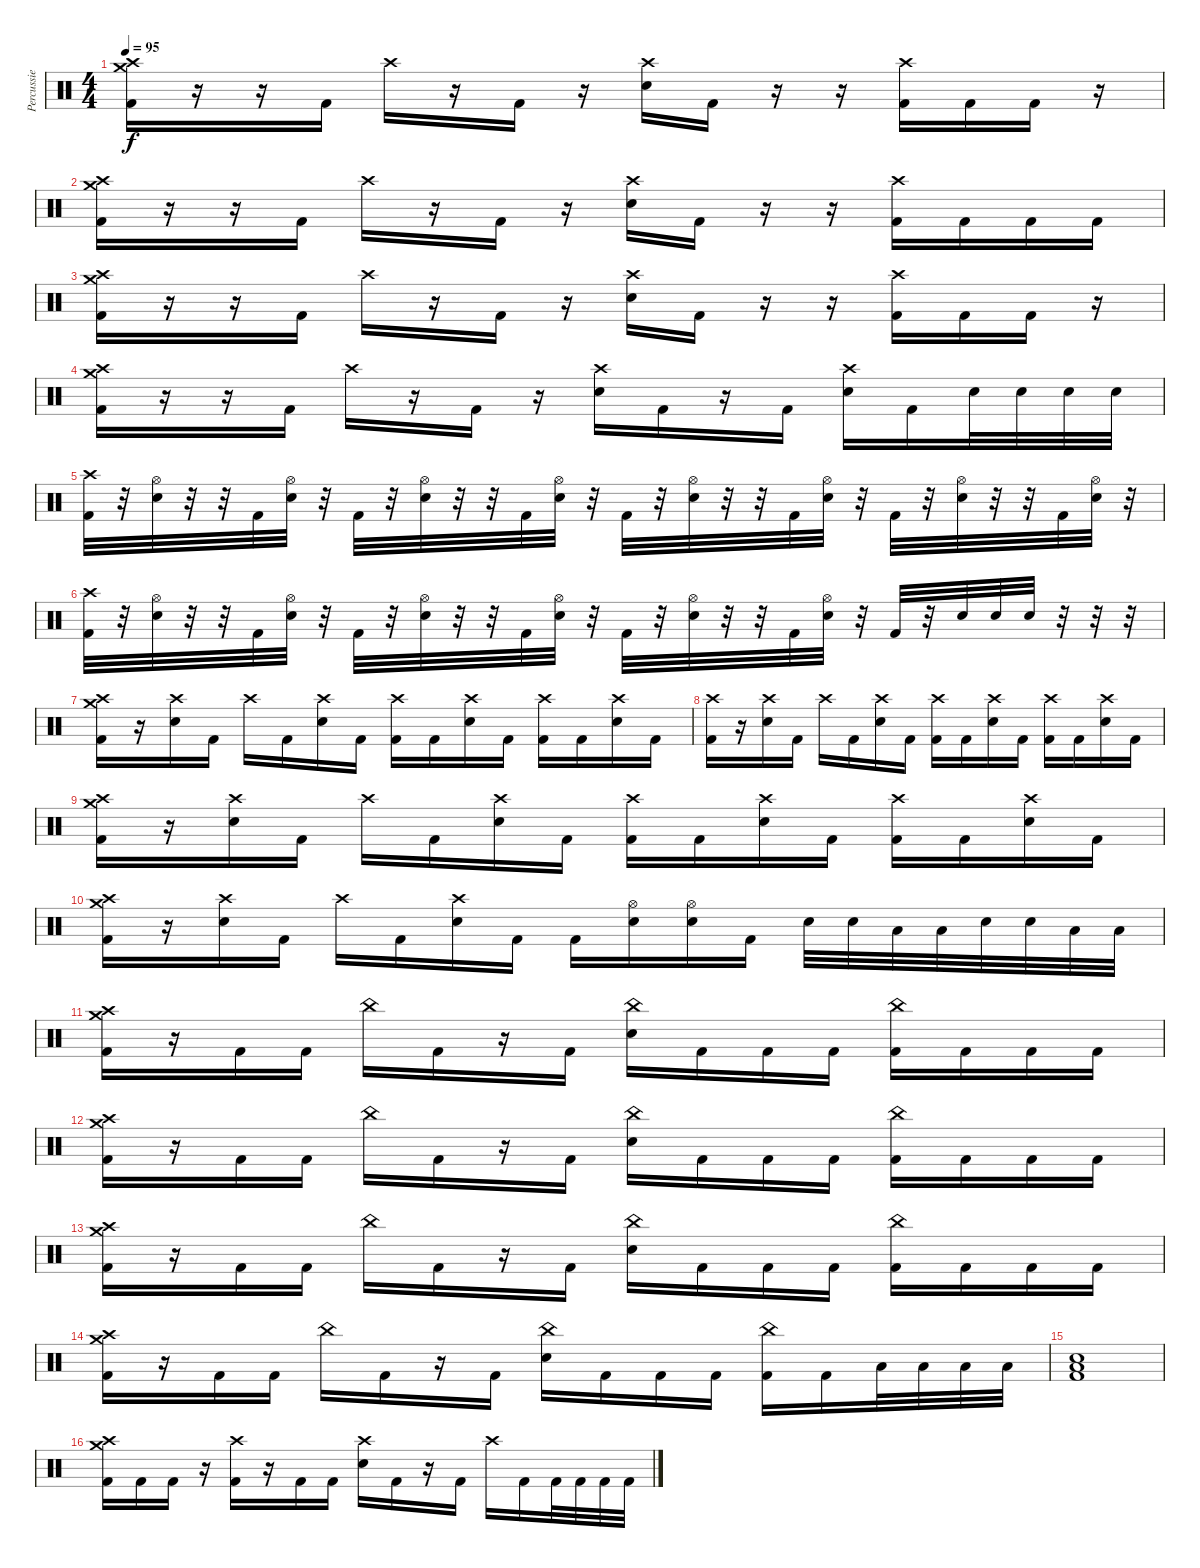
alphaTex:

\track ("Percussie" "Percussie") {instrument percussion}
\staff {score}
\articulation defaults
\ts (4 4)
\tempo 95
\clef neutral
\ks c
("Crash medium (hit)" "Crash high (hit)" "Kick (hit) 2").16{dy f} r.16 r.16 "Kick (hit) 2".16 "Crash high (hit)".16 r.16 "Kick (hit) 2".16 r.16 ("Crash high (hit)" "Electric Snare (hit)").16 "Kick (hit) 2".16 r.16 r.16 ("Crash high (hit)" "Kick (hit) 2").16 "Kick (hit) 2".16 "Kick (hit) 2".16 r.16 |
("Crash medium (hit)" "Crash high (hit)" "Kick (hit) 2").16 r.16 r.16 "Kick (hit) 2".16 "Crash high (hit)".16 r.16 "Kick (hit) 2".16 r.16 ("Crash high (hit)" "Electric Snare (hit)").16 "Kick (hit) 2".16 r.16 r.16 ("Crash high (hit)" "Kick (hit) 2").16 "Kick (hit) 2".16 "Kick (hit) 2".16 "Kick (hit) 2".16 |
("Crash medium (hit)" "Crash high (hit)" "Kick (hit) 2").16 r.16 r.16 "Kick (hit) 2".16 "Crash high (hit)".16 r.16 "Kick (hit) 2".16 r.16 ("Crash high (hit)" "Electric Snare (hit)").16 "Kick (hit) 2".16 r.16 r.16 ("Crash high (hit)" "Kick (hit) 2").16 "Kick (hit) 2".16 "Kick (hit) 2".16 r.16 |
("Crash medium (hit)" "Crash high (hit)" "Kick (hit) 2").16 r.16 r.16 "Kick (hit) 2".16 "Crash high (hit)".16 r.16 "Kick (hit) 2".16 r.16 ("Crash high (hit)" "Electric Snare (hit)").16 "Kick (hit) 2".16 r.16 "Kick (hit) 2".16 ("Crash high (hit)" "Electric Snare (hit)").16 "Kick (hit) 2".16 "Electric Snare (hit)".32 "Electric Snare (hit)".32 "Electric Snare (hit)".32 "Electric Snare (hit)".32 |
("Crash high (hit)" "Kick (hit) 2").32 r.32 ("Hi-Hat (open)" "Electric Snare (hit)").32 r.32 r.32 "Kick (hit) 2".32 ("Hi-Hat (open)" "Electric Snare (hit)").32 r.32 "Kick (hit) 2".32 r.32 ("Hi-Hat (open)" "Electric Snare (hit)").32 r.32 r.32 "Kick (hit) 2".32 ("Hi-Hat (open)" "Electric Snare (hit)").32 r.32 "Kick (hit) 2".32 r.32 ("Hi-Hat (open)" "Electric Snare (hit)").32 r.32 r.32 "Kick (hit) 2".32 ("Hi-Hat (open)" "Electric Snare (hit)").32 r.32 "Kick (hit) 2".32 r.32 ("Hi-Hat (open)" "Electric Snare (hit)").32 r.32 r.32 "Kick (hit) 2".32 ("Hi-Hat (open)" "Electric Snare (hit)").32 r.32 |
("Crash high (hit)" "Kick (hit) 2").32 r.32 ("Hi-Hat (open)" "Electric Snare (hit)").32 r.32 r.32 "Kick (hit) 2".32 ("Hi-Hat (open)" "Electric Snare (hit)").32 r.32 "Kick (hit) 2".32 r.32 ("Hi-Hat (open)" "Electric Snare (hit)").32 r.32 r.32 "Kick (hit) 2".32 ("Hi-Hat (open)" "Electric Snare (hit)").32 r.32 "Kick (hit) 2".32 r.32 ("Hi-Hat (open)" "Electric Snare (hit)").32 r.32 r.32 "Kick (hit) 2".32 ("Hi-Hat (open)" "Electric Snare (hit)").32 r.32 "Kick (hit) 2".32 r.32 "Electric Snare (hit)".32 "Electric Snare (hit)".32 "Electric Snare (hit)".32 r.32 r.32 r.32 |
("Crash medium (hit)" "Crash high (hit)" "Kick (hit) 2").16{volume 13} r.16 ("Crash high (hit)" "Electric Snare (hit)").16 "Kick (hit) 2".16 "Crash high (hit)".16 "Kick (hit) 2".16 ("Crash high (hit)" "Electric Snare (hit)").16 "Kick (hit) 2".16 ("Crash high (hit)" "Kick (hit) 2").16 "Kick (hit) 2".16 ("Crash high (hit)" "Electric Snare (hit)").16 "Kick (hit) 2".16 ("Crash high (hit)" "Kick (hit) 2").16 "Kick (hit) 2".16 ("Crash high (hit)" "Electric Snare (hit)").16 "Kick (hit) 2".16 |
("Crash high (hit)" "Kick (hit) 2").16 r.16 ("Crash high (hit)" "Electric Snare (hit)").16 "Kick (hit) 2".16 "Crash high (hit)".16 "Kick (hit) 2".16 ("Crash high (hit)" "Electric Snare (hit)").16 "Kick (hit) 2".16 ("Crash high (hit)" "Kick (hit) 2").16 "Kick (hit) 2".16 ("Crash high (hit)" "Electric Snare (hit)").16 "Kick (hit) 2".16 ("Crash high (hit)" "Kick (hit) 2").16 "Kick (hit) 2".16 ("Crash high (hit)" "Electric Snare (hit)").16 "Kick (hit) 2".16 |
("Crash medium (hit)" "Crash high (hit)" "Kick (hit) 2").16 r.16 ("Crash high (hit)" "Electric Snare (hit)").16 "Kick (hit) 2".16 "Crash high (hit)".16 "Kick (hit) 2".16 ("Crash high (hit)" "Electric Snare (hit)").16 "Kick (hit) 2".16 ("Crash high (hit)" "Kick (hit) 2").16 "Kick (hit) 2".16 ("Crash high (hit)" "Electric Snare (hit)").16 "Kick (hit) 2".16 ("Crash high (hit)" "Kick (hit) 2").16 "Kick (hit) 2".16 ("Crash high (hit)" "Electric Snare (hit)").16 "Kick (hit) 2".16 |
("Crash medium (hit)" "Crash high (hit)" "Kick (hit) 2").16 r.16 ("Crash high (hit)" "Electric Snare (hit)").16 "Kick (hit) 2".16 "Crash high (hit)".16 "Kick (hit) 2".16 ("Crash high (hit)" "Electric Snare (hit)").16 "Kick (hit) 2".16 "Kick (hit) 2".16 ("Hi-Hat (open)" "Electric Snare (hit)").16 ("Hi-Hat (open)" "Electric Snare (hit)").16 "Kick (hit) 2".16 "Electric Snare (hit)".32 "Electric Snare (hit)".32 "Low Tom (hit)".32 "Low Tom (hit)".32 "Electric Snare (hit)".32 "Electric Snare (hit)".32 "Low Floor Tom (hit)".32 "Low Floor Tom (hit)".32 |
("Crash medium (hit)" "Crash high (hit)" "Kick (hit) 2").16 r.16 "Kick (hit) 2".16 "Kick (hit) 2".16 "China (hit)".16 "Kick (hit) 2".16 r.16 "Kick (hit) 2".16 ("China (hit)" "Electric Snare (hit)").16 "Kick (hit) 2".16 "Kick (hit) 2".16 "Kick (hit) 2".16 ("China (hit)" "Kick (hit) 2").16 "Kick (hit) 2".16 "Kick (hit) 2".16 "Kick (hit) 2".16 |
("Crash medium (hit)" "Crash high (hit)" "Kick (hit) 2").16 r.16 "Kick (hit) 2".16 "Kick (hit) 2".16 "China (hit)".16 "Kick (hit) 2".16 r.16 "Kick (hit) 2".16 ("China (hit)" "Electric Snare (hit)").16 "Kick (hit) 2".16 "Kick (hit) 2".16 "Kick (hit) 2".16 ("China (hit)" "Kick (hit) 2").16 "Kick (hit) 2".16 "Kick (hit) 2".16 "Kick (hit) 2".16 |
("Crash medium (hit)" "Crash high (hit)" "Kick (hit) 2").16 r.16 "Kick (hit) 2".16 "Kick (hit) 2".16 "China (hit)".16 "Kick (hit) 2".16 r.16 "Kick (hit) 2".16 ("China (hit)" "Electric Snare (hit)").16 "Kick (hit) 2".16 "Kick (hit) 2".16 "Kick (hit) 2".16 ("China (hit)" "Kick (hit) 2").16 "Kick (hit) 2".16 "Kick (hit) 2".16 "Kick (hit) 2".16 |
("Crash medium (hit)" "Crash high (hit)" "Kick (hit) 2").16 r.16 "Kick (hit) 2".16 "Kick (hit) 2".16 "China (hit)".16 "Kick (hit) 2".16 r.16 "Kick (hit) 2".16 ("China (hit)" "Electric Snare (hit)").16 "Kick (hit) 2".16 "Kick (hit) 2".16 "Kick (hit) 2".16 ("China (hit)" "Kick (hit) 2").16 "Kick (hit) 2".16 "Low Tom (hit)".32 "Low Tom (hit)".32 "Low Floor Tom (hit)".32 "Low Floor Tom (hit)".32 |
("Electric Snare (hit)" "Low Floor Tom (hit)" "Kick (hit) 2").1 |
("Crash medium (hit)" "Crash high (hit)" "Kick (hit) 2").16 "Kick (hit) 2".16 "Kick (hit) 2".16 r.16 ("Crash high (hit)" "Kick (hit) 2").16 r.16 "Kick (hit) 2".16 "Kick (hit) 2".16 ("Crash high (hit)" "Electric Snare (hit)").16 "Kick (hit) 2".16 r.16 "Kick (hit) 2".16 "Crash high (hit)".16 "Kick (hit) 2".16 "Kick (hit) 2".32 "Kick (hit) 2".32 "Kick (hit) 2".32 "Kick (hit) 2".32
